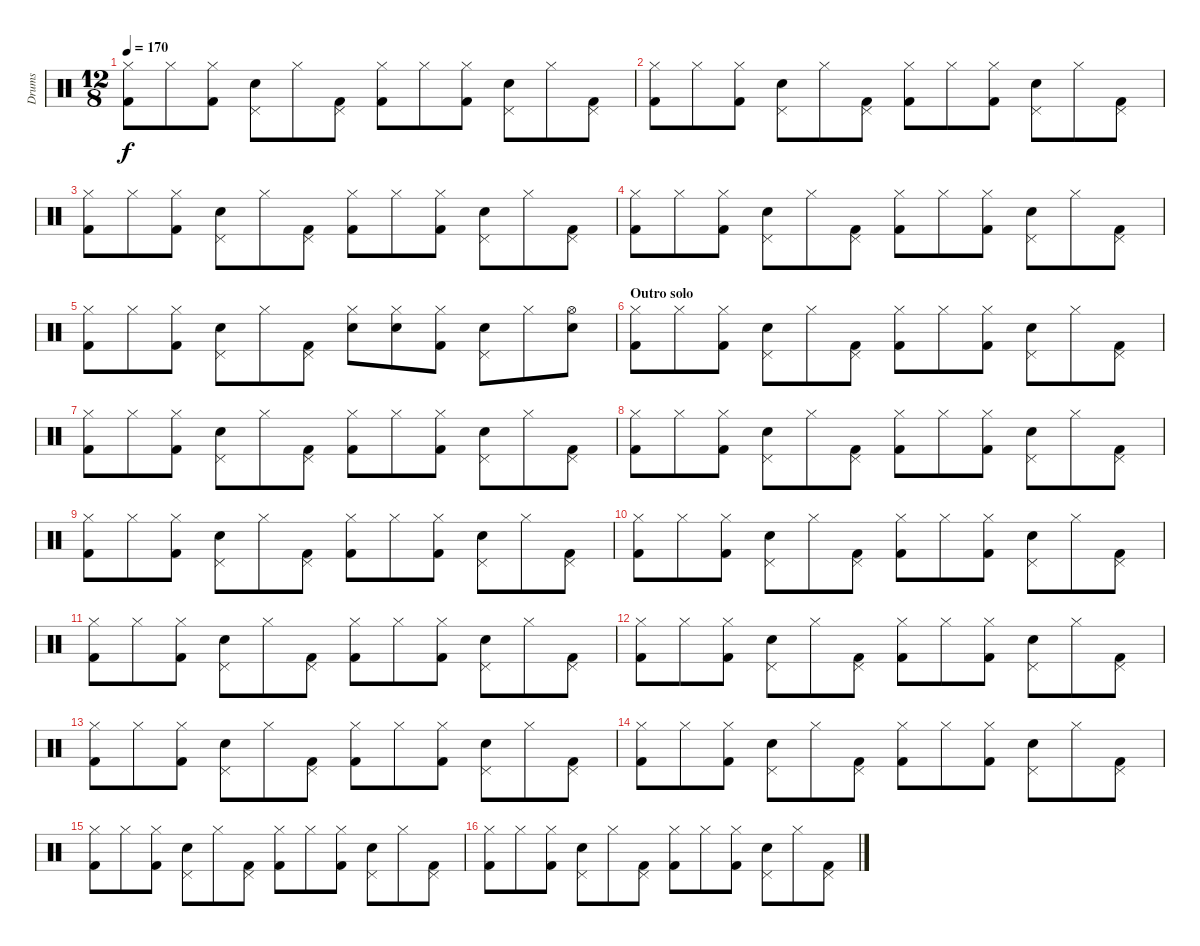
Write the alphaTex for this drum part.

\track ("Drums" "Drums") {instrument percussion}
\staff {score}
\articulation defaults
\ts (12 8)
\tempo 170
\clef neutral
\ks c
("Kick (hit) 2" "Hi-Hat (closed)").8{dy f} "Hi-Hat (closed)".8 ("Kick (hit) 2" "Hi-Hat (closed)").8 ("Snare (hit) 2" "Pedal Hi-Hat (hit)").8 "Hi-Hat (closed)".8 ("Kick (hit) 2" "Pedal Hi-Hat (hit)").8 ("Kick (hit) 2" "Hi-Hat (closed)").8 "Hi-Hat (closed)".8 ("Kick (hit) 2" "Hi-Hat (closed)").8 ("Snare (hit) 2" "Pedal Hi-Hat (hit)").8 "Hi-Hat (closed)".8 ("Kick (hit) 2" "Pedal Hi-Hat (hit)").8 |
("Kick (hit) 2" "Hi-Hat (closed)").8 "Hi-Hat (closed)".8 ("Kick (hit) 2" "Hi-Hat (closed)").8 ("Snare (hit) 2" "Pedal Hi-Hat (hit)").8 "Hi-Hat (closed)".8 ("Kick (hit) 2" "Pedal Hi-Hat (hit)").8 ("Kick (hit) 2" "Hi-Hat (closed)").8 "Hi-Hat (closed)".8 ("Kick (hit) 2" "Hi-Hat (closed)").8 ("Snare (hit) 2" "Pedal Hi-Hat (hit)").8 "Hi-Hat (closed)".8 ("Kick (hit) 2" "Pedal Hi-Hat (hit)").8 |
("Kick (hit) 2" "Hi-Hat (closed)").8 "Hi-Hat (closed)".8 ("Kick (hit) 2" "Hi-Hat (closed)").8 ("Snare (hit) 2" "Pedal Hi-Hat (hit)").8 "Hi-Hat (closed)".8 ("Kick (hit) 2" "Pedal Hi-Hat (hit)").8 ("Kick (hit) 2" "Hi-Hat (closed)").8 "Hi-Hat (closed)".8 ("Kick (hit) 2" "Hi-Hat (closed)").8 ("Snare (hit) 2" "Pedal Hi-Hat (hit)").8 "Hi-Hat (closed)".8 ("Kick (hit) 2" "Pedal Hi-Hat (hit)").8 |
("Kick (hit) 2" "Hi-Hat (closed)").8 "Hi-Hat (closed)".8 ("Kick (hit) 2" "Hi-Hat (closed)").8 ("Snare (hit) 2" "Pedal Hi-Hat (hit)").8 "Hi-Hat (closed)".8 ("Kick (hit) 2" "Pedal Hi-Hat (hit)").8 ("Kick (hit) 2" "Hi-Hat (closed)").8 "Hi-Hat (closed)".8 ("Kick (hit) 2" "Hi-Hat (closed)").8 ("Snare (hit) 2" "Pedal Hi-Hat (hit)").8 "Hi-Hat (closed)".8 ("Kick (hit) 2" "Pedal Hi-Hat (hit)").8 |
("Kick (hit) 2" "Hi-Hat (closed)").8 "Hi-Hat (closed)".8 ("Kick (hit) 2" "Hi-Hat (closed)").8 ("Snare (hit) 2" "Pedal Hi-Hat (hit)").8 "Hi-Hat (closed)".8 ("Kick (hit) 2" "Pedal Hi-Hat (hit)").8 ("Snare (hit) 2" "Hi-Hat (closed)").8 ("Snare (hit) 2" "Hi-Hat (closed)").8 ("Kick (hit) 2" "Hi-Hat (closed)").8 ("Snare (hit) 2" "Pedal Hi-Hat (hit)").8 "Hi-Hat (closed)".8 ("Snare (hit) 2" "Hi-Hat (open)").8 |
\section ("" "Outro solo")
("Kick (hit) 2" "Hi-Hat (closed)").8 "Hi-Hat (closed)".8 ("Kick (hit) 2" "Hi-Hat (closed)").8 ("Snare (hit) 2" "Pedal Hi-Hat (hit)").8 "Hi-Hat (closed)".8 ("Kick (hit) 2" "Pedal Hi-Hat (hit)").8 ("Kick (hit) 2" "Hi-Hat (closed)").8 "Hi-Hat (closed)".8 ("Kick (hit) 2" "Hi-Hat (closed)").8 ("Snare (hit) 2" "Pedal Hi-Hat (hit)").8 "Hi-Hat (closed)".8 ("Kick (hit) 2" "Pedal Hi-Hat (hit)").8 |
("Kick (hit) 2" "Hi-Hat (closed)").8 "Hi-Hat (closed)".8 ("Kick (hit) 2" "Hi-Hat (closed)").8 ("Snare (hit) 2" "Pedal Hi-Hat (hit)").8 "Hi-Hat (closed)".8 ("Kick (hit) 2" "Pedal Hi-Hat (hit)").8 ("Kick (hit) 2" "Hi-Hat (closed)").8 "Hi-Hat (closed)".8 ("Kick (hit) 2" "Hi-Hat (closed)").8 ("Snare (hit) 2" "Pedal Hi-Hat (hit)").8 "Hi-Hat (closed)".8 ("Kick (hit) 2" "Pedal Hi-Hat (hit)").8 |
("Kick (hit) 2" "Hi-Hat (closed)").8 "Hi-Hat (closed)".8 ("Kick (hit) 2" "Hi-Hat (closed)").8 ("Snare (hit) 2" "Pedal Hi-Hat (hit)").8 "Hi-Hat (closed)".8 ("Kick (hit) 2" "Pedal Hi-Hat (hit)").8 ("Kick (hit) 2" "Hi-Hat (closed)").8 "Hi-Hat (closed)".8 ("Kick (hit) 2" "Hi-Hat (closed)").8 ("Snare (hit) 2" "Pedal Hi-Hat (hit)").8 "Hi-Hat (closed)".8 ("Kick (hit) 2" "Pedal Hi-Hat (hit)").8 |
("Kick (hit) 2" "Hi-Hat (closed)").8 "Hi-Hat (closed)".8 ("Kick (hit) 2" "Hi-Hat (closed)").8 ("Snare (hit) 2" "Pedal Hi-Hat (hit)").8 "Hi-Hat (closed)".8 ("Kick (hit) 2" "Pedal Hi-Hat (hit)").8 ("Kick (hit) 2" "Hi-Hat (closed)").8 "Hi-Hat (closed)".8 ("Kick (hit) 2" "Hi-Hat (closed)").8 ("Snare (hit) 2" "Pedal Hi-Hat (hit)").8 "Hi-Hat (closed)".8 ("Kick (hit) 2" "Pedal Hi-Hat (hit)").8 |
("Kick (hit) 2" "Hi-Hat (closed)").8 "Hi-Hat (closed)".8 ("Kick (hit) 2" "Hi-Hat (closed)").8 ("Snare (hit) 2" "Pedal Hi-Hat (hit)").8 "Hi-Hat (closed)".8 ("Kick (hit) 2" "Pedal Hi-Hat (hit)").8 ("Kick (hit) 2" "Hi-Hat (closed)").8 "Hi-Hat (closed)".8 ("Kick (hit) 2" "Hi-Hat (closed)").8 ("Snare (hit) 2" "Pedal Hi-Hat (hit)").8 "Hi-Hat (closed)".8 ("Kick (hit) 2" "Pedal Hi-Hat (hit)").8 |
("Kick (hit) 2" "Hi-Hat (closed)").8 "Hi-Hat (closed)".8 ("Kick (hit) 2" "Hi-Hat (closed)").8 ("Snare (hit) 2" "Pedal Hi-Hat (hit)").8 "Hi-Hat (closed)".8 ("Kick (hit) 2" "Pedal Hi-Hat (hit)").8 ("Kick (hit) 2" "Hi-Hat (closed)").8 "Hi-Hat (closed)".8 ("Kick (hit) 2" "Hi-Hat (closed)").8 ("Snare (hit) 2" "Pedal Hi-Hat (hit)").8 "Hi-Hat (closed)".8 ("Kick (hit) 2" "Pedal Hi-Hat (hit)").8 |
("Kick (hit) 2" "Hi-Hat (closed)").8 "Hi-Hat (closed)".8 ("Kick (hit) 2" "Hi-Hat (closed)").8 ("Snare (hit) 2" "Pedal Hi-Hat (hit)").8 "Hi-Hat (closed)".8 ("Kick (hit) 2" "Pedal Hi-Hat (hit)").8 ("Kick (hit) 2" "Hi-Hat (closed)").8 "Hi-Hat (closed)".8 ("Kick (hit) 2" "Hi-Hat (closed)").8 ("Snare (hit) 2" "Pedal Hi-Hat (hit)").8 "Hi-Hat (closed)".8 ("Kick (hit) 2" "Pedal Hi-Hat (hit)").8 |
("Kick (hit) 2" "Hi-Hat (closed)").8 "Hi-Hat (closed)".8 ("Kick (hit) 2" "Hi-Hat (closed)").8 ("Snare (hit) 2" "Pedal Hi-Hat (hit)").8 "Hi-Hat (closed)".8 ("Kick (hit) 2" "Pedal Hi-Hat (hit)").8 ("Kick (hit) 2" "Hi-Hat (closed)").8 "Hi-Hat (closed)".8 ("Kick (hit) 2" "Hi-Hat (closed)").8 ("Snare (hit) 2" "Pedal Hi-Hat (hit)").8 "Hi-Hat (closed)".8 ("Kick (hit) 2" "Pedal Hi-Hat (hit)").8 |
("Kick (hit) 2" "Hi-Hat (closed)").8 "Hi-Hat (closed)".8 ("Kick (hit) 2" "Hi-Hat (closed)").8 ("Snare (hit) 2" "Pedal Hi-Hat (hit)").8 "Hi-Hat (closed)".8 ("Kick (hit) 2" "Pedal Hi-Hat (hit)").8 ("Kick (hit) 2" "Hi-Hat (closed)").8 "Hi-Hat (closed)".8 ("Kick (hit) 2" "Hi-Hat (closed)").8 ("Snare (hit) 2" "Pedal Hi-Hat (hit)").8 "Hi-Hat (closed)".8 ("Kick (hit) 2" "Pedal Hi-Hat (hit)").8 |
("Kick (hit) 2" "Hi-Hat (closed)").8 "Hi-Hat (closed)".8 ("Kick (hit) 2" "Hi-Hat (closed)").8 ("Snare (hit) 2" "Pedal Hi-Hat (hit)").8 "Hi-Hat (closed)".8 ("Kick (hit) 2" "Pedal Hi-Hat (hit)").8 ("Kick (hit) 2" "Hi-Hat (closed)").8 "Hi-Hat (closed)".8 ("Kick (hit) 2" "Hi-Hat (closed)").8 ("Snare (hit) 2" "Pedal Hi-Hat (hit)").8 "Hi-Hat (closed)".8 ("Kick (hit) 2" "Pedal Hi-Hat (hit)").8 |
("Kick (hit) 2" "Hi-Hat (closed)").8 "Hi-Hat (closed)".8 ("Kick (hit) 2" "Hi-Hat (closed)").8 ("Snare (hit) 2" "Pedal Hi-Hat (hit)").8 "Hi-Hat (closed)".8 ("Kick (hit) 2" "Pedal Hi-Hat (hit)").8 ("Kick (hit) 2" "Hi-Hat (closed)").8 "Hi-Hat (closed)".8 ("Kick (hit) 2" "Hi-Hat (closed)").8 ("Snare (hit) 2" "Pedal Hi-Hat (hit)").8 "Hi-Hat (closed)".8 ("Kick (hit) 2" "Pedal Hi-Hat (hit)").8
